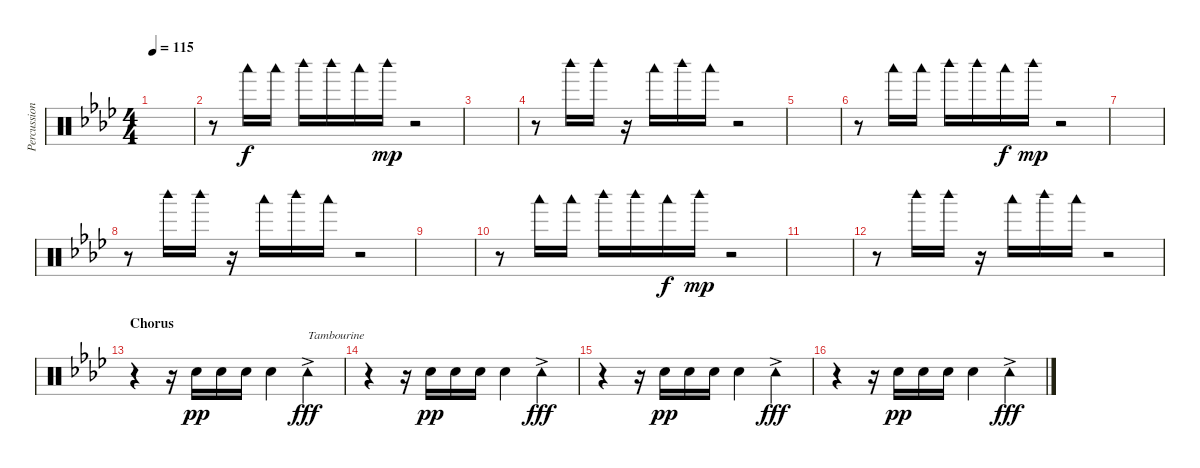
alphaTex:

\track ("Percussion" "Percussion") {instrument percussion}
\staff {score}
\articulation defaults
\ts (4 4)
\tempo 115
\clef neutral
\ks ab
|
r.8 "Woodblock low (hit)".16 "Woodblock low (hit)".16 "Woodblock high (hit)".16 "Woodblock high (hit)".16 "Woodblock low (hit)".16{dy f} "Woodblock high (hit)".16{dy mp} r.2 |
|
r.8 "Woodblock high (hit)".16 "Woodblock high (hit)".16 r.16 "Woodblock low (hit)".16 "Woodblock high (hit)".16 "Woodblock low (hit)".16 r.2 |
|
r.8 "Woodblock low (hit)".16 "Woodblock low (hit)".16 "Woodblock high (hit)".16 "Woodblock high (hit)".16 "Woodblock low (hit)".16{dy f} "Woodblock high (hit)".16{dy mp} r.2 |
|
r.8 "Woodblock high (hit)".16 "Woodblock high (hit)".16 r.16 "Woodblock low (hit)".16 "Woodblock high (hit)".16 "Woodblock low (hit)".16 r.2 |
|
r.8 "Woodblock low (hit)".16 "Woodblock low (hit)".16 "Woodblock high (hit)".16 "Woodblock high (hit)".16 "Woodblock low (hit)".16{dy f} "Woodblock high (hit)".16{dy mp} r.2 |
|
r.8 "Woodblock high (hit)".16 "Woodblock high (hit)".16 r.16 "Woodblock low (hit)".16 "Woodblock high (hit)".16 "Woodblock low (hit)".16 r.2 |
\section ("" "Chorus")
r.4 r.16 "Snare (hit) 2".16{dy pp} "Snare (hit) 2".16 "Snare (hit) 2".16 "Snare (hit) 2".4 "Tambourine (hit)"{ac}.4{txt "Tambourine" dy fff} |
r.4 r.16 "Snare (hit) 2".16{dy pp} "Snare (hit) 2".16 "Snare (hit) 2".16 "Snare (hit) 2".4 "Tambourine (hit)"{ac}.4{dy fff} |
r.4 r.16 "Snare (hit) 2".16{dy pp} "Snare (hit) 2".16 "Snare (hit) 2".16 "Snare (hit) 2".4 "Tambourine (hit)"{ac}.4{dy fff} |
r.4 r.16 "Snare (hit) 2".16{dy pp} "Snare (hit) 2".16 "Snare (hit) 2".16 "Snare (hit) 2".4 "Tambourine (hit)"{ac}.4{dy fff}
